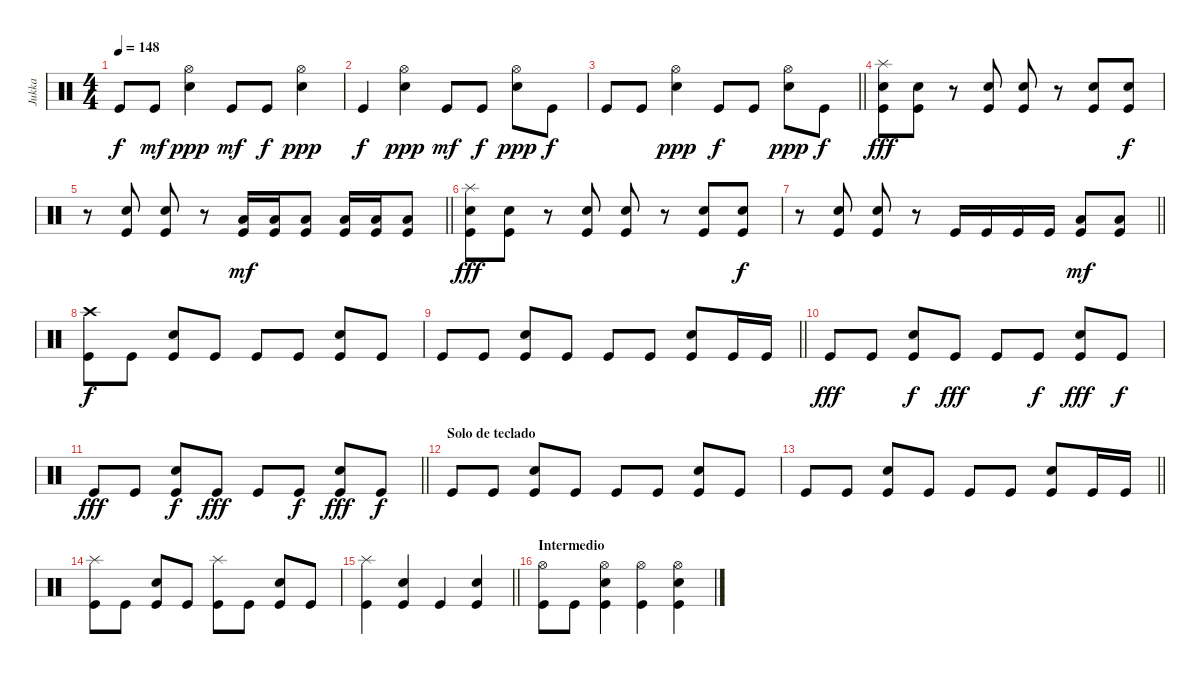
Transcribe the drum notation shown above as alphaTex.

\track ("Jukka" "Jukka") {instrument percussion}
\staff {score}
\articulation defaults
\ts (4 4)
\tempo 148
\clef neutral
\ks c "Kick (hit)".8{dy f} "Kick (hit)".8{dy mf}
("Snare (hit) 2" "Hi-Hat (open)").4{dy ppp} "Kick (hit)".8{dy mf} "Kick (hit)".8{dy f} ("Snare (hit) 2" "Hi-Hat (open)").4{dy ppp} |
"Kick (hit)".4{dy f} ("Snare (hit) 2" "Hi-Hat (open)").4{dy ppp} "Kick (hit)".8{dy mf} "Kick (hit)".8{dy f} ("Snare (hit) 2" "Hi-Hat (open)").8{dy ppp} "Kick (hit)".8{dy f} |
\barLineRight lightlight "Kick (hit)".8 "Kick (hit)".8
("Snare (hit) 2" "Hi-Hat (open)").4{dy ppp} "Kick (hit)".8{dy f} "Kick (hit)".8 ("Snare (hit) 2" "Hi-Hat (open)").8{dy ppp} "Kick (hit)".8{dy f} |
("Kick (hit)" "Snare (hit) 2" "Splash (hit)").8{dy fff} ("Kick (hit)" "Snare (hit) 2").8 r.8 ("Kick (hit)" "Snare (hit) 2").8 ("Kick (hit)" "Snare (hit) 2").8 r.8 ("Kick (hit)" "Snare (hit) 2").8 ("Kick (hit)" "Snare (hit) 2").8{dy f} |
\barLineRight lightlight
r.8 ("Kick (hit)" "Snare (hit) 2").8 ("Kick (hit)" "Snare (hit) 2").8 r.8 ("Kick (hit)" "Low Floor Tom (hit)").16{dy mf} ("Kick (hit)" "Low Floor Tom (hit)").16 ("Kick (hit)" "Low Floor Tom (hit)").8 ("Kick (hit)" "Low Floor Tom (hit)").16 ("Kick (hit)" "Low Floor Tom (hit)").16 ("Kick (hit)" "Low Floor Tom (hit)").8 |
("Kick (hit)" "Snare (hit) 2" "Splash (hit)").8{dy fff} ("Kick (hit)" "Snare (hit) 2").8 r.8 ("Kick (hit)" "Snare (hit) 2").8 ("Kick (hit)" "Snare (hit) 2").8 r.8 ("Kick (hit)" "Snare (hit) 2").8 ("Kick (hit)" "Snare (hit) 2").8{dy f} |
\barLineRight lightlight
r.8 ("Kick (hit)" "Snare (hit) 2").8 ("Kick (hit)" "Snare (hit) 2").8 r.8 "Kick (hit)".16 "Kick (hit)".16 "Kick (hit)".16 "Kick (hit)".16 ("Kick (hit)" "Low Floor Tom (hit)").8{dy mf} ("Kick (hit)" "Low Floor Tom (hit)").8 |
("Kick (hit)" "Crash high (hit)").8{dy f} "Kick (hit)".8 ("Kick (hit)" "Snare (hit) 2").8 "Kick (hit)".8 "Kick (hit)".8 "Kick (hit)".8 ("Kick (hit)" "Snare (hit) 2").8 "Kick (hit)".8 |
\barLineRight lightlight "Kick (hit)".8 "Kick (hit)".8
("Kick (hit)" "Snare (hit) 2").8 "Kick (hit)".8 "Kick (hit)".8 "Kick (hit)".8 ("Kick (hit)" "Snare (hit) 2").8 "Kick (hit)".16 "Kick (hit)".16 |
"Kick (hit)".8{dy fff} "Kick (hit)".8 ("Kick (hit)" "Snare (hit) 2").8{dy f} "Kick (hit)".8{dy fff} "Kick (hit)".8 "Kick (hit)".8{dy f} ("Kick (hit)" "Snare (hit) 2").8{dy fff} "Kick (hit)".8{dy f} |
\barLineRight lightlight "Kick (hit)".8{dy fff} "Kick (hit)".8
("Kick (hit)" "Snare (hit) 2").8{dy f} "Kick (hit)".8{dy fff} "Kick (hit)".8 "Kick (hit)".8{dy f} ("Kick (hit)" "Snare (hit) 2").8{dy fff} "Kick (hit)".8{dy f} |
\section ("" "Solo de teclado")
"Kick (hit)".8 "Kick (hit)".8 ("Kick (hit)" "Snare (hit) 2").8 "Kick (hit)".8 "Kick (hit)".8 "Kick (hit)".8 ("Kick (hit)" "Snare (hit) 2").8 "Kick (hit)".8 |
\barLineRight lightlight "Kick (hit)".8 "Kick (hit)".8
("Kick (hit)" "Snare (hit) 2").8 "Kick (hit)".8 "Kick (hit)".8 "Kick (hit)".8 ("Kick (hit)" "Snare (hit) 2").8 "Kick (hit)".16 "Kick (hit)".16 |
("Kick (hit)" "Splash (hit)").8 "Kick (hit)".8 ("Kick (hit)" "Snare (hit) 2").8 "Kick (hit)".8 ("Kick (hit)" "Splash (hit)").8 "Kick (hit)".8 ("Kick (hit)" "Snare (hit) 2").8 "Kick (hit)".8 |
\barLineRight lightlight
("Kick (hit)" "Splash (hit)").4 ("Kick (hit)" "Snare (hit) 2").4 "Kick (hit)".4 ("Kick (hit)" "Snare (hit) 2").4 |
\section ("" "Intermedio")
("Kick (hit)" "Hi-Hat (open)").8 "Kick (hit)".8 ("Kick (hit)" "Snare (hit) 2" "Hi-Hat (open)").4 ("Kick (hit)" "Hi-Hat (open)").4 ("Kick (hit)" "Snare (hit) 2" "Hi-Hat (open)").4
